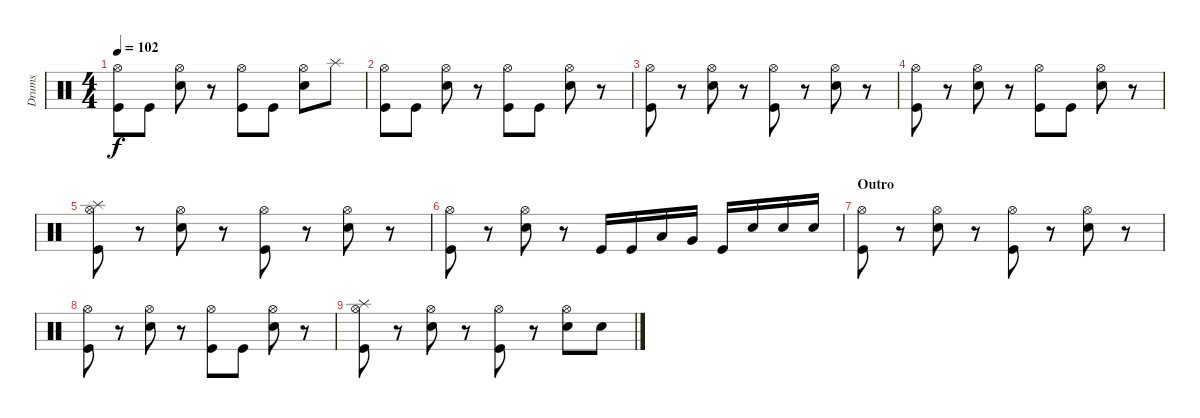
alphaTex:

\track ("Drums" "Drums") {instrument percussion}
\staff {score}
\articulation defaults
\ts (4 4)
\tempo 102
\clef neutral
\ks c
("Hi-Hat (open)" "Kick (hit)").8{dy f} "Kick (hit)".8 ("Hi-Hat (open)" "Snare (hit) 2").8 r.8 ("Hi-Hat (open)" "Kick (hit)").8 "Kick (hit)".8 ("Hi-Hat (open)" "Snare (hit) 2").8 "Splash (hit)".8 |
("Hi-Hat (open)" "Kick (hit)").8 "Kick (hit)".8 ("Hi-Hat (open)" "Snare (hit) 2").8 r.8 ("Hi-Hat (open)" "Kick (hit)").8 "Kick (hit)".8 ("Hi-Hat (open)" "Snare (hit) 2").8 r.8 |
("Hi-Hat (open)" "Kick (hit)").8 r.8 ("Hi-Hat (open)" "Snare (hit) 2").8 r.8 ("Hi-Hat (open)" "Kick (hit)").8 r.8 ("Hi-Hat (open)" "Snare (hit) 2").8 r.8 |
("Hi-Hat (open)" "Kick (hit)").8 r.8 ("Hi-Hat (open)" "Snare (hit) 2").8 r.8 ("Hi-Hat (open)" "Kick (hit)").8 "Kick (hit)".8 ("Hi-Hat (open)" "Snare (hit) 2").8 r.8 |
("Hi-Hat (open)" "Splash (hit)" "Kick (hit)").8 r.8 ("Hi-Hat (open)" "Snare (hit) 2").8 r.8 ("Hi-Hat (open)" "Kick (hit)").8 r.8 ("Hi-Hat (open)" "Snare (hit) 2").8 r.8 |
("Hi-Hat (open)" "Kick (hit)").8 r.8 ("Hi-Hat (open)" "Snare (hit) 2").8 r.8 "Kick (hit)".16 "Kick (hit)".16 "Low Tom (hit)".16 "Very Low Tom (hit)".16 "Kick (hit)".16 "Snare (hit) 2".16 "Snare (hit) 2".16 "Snare (hit) 2".16 |
\section ("" "Outro")
("Hi-Hat (open)" "Kick (hit)").8 r.8 ("Hi-Hat (open)" "Snare (hit) 2").8 r.8 ("Hi-Hat (open)" "Kick (hit)").8 r.8 ("Hi-Hat (open)" "Snare (hit) 2").8 r.8 |
("Hi-Hat (open)" "Kick (hit)").8 r.8 ("Hi-Hat (open)" "Snare (hit) 2").8 r.8 ("Hi-Hat (open)" "Kick (hit)").8 "Kick (hit)".8 ("Hi-Hat (open)" "Snare (hit) 2").8 r.8 |
("Hi-Hat (open)" "Splash (hit)" "Kick (hit)").8 r.8 ("Hi-Hat (open)" "Snare (hit) 2").8 r.8 ("Hi-Hat (open)" "Kick (hit)").8 r.8 ("Hi-Hat (open)" "Snare (hit) 2").8 "Snare (hit) 2".8
